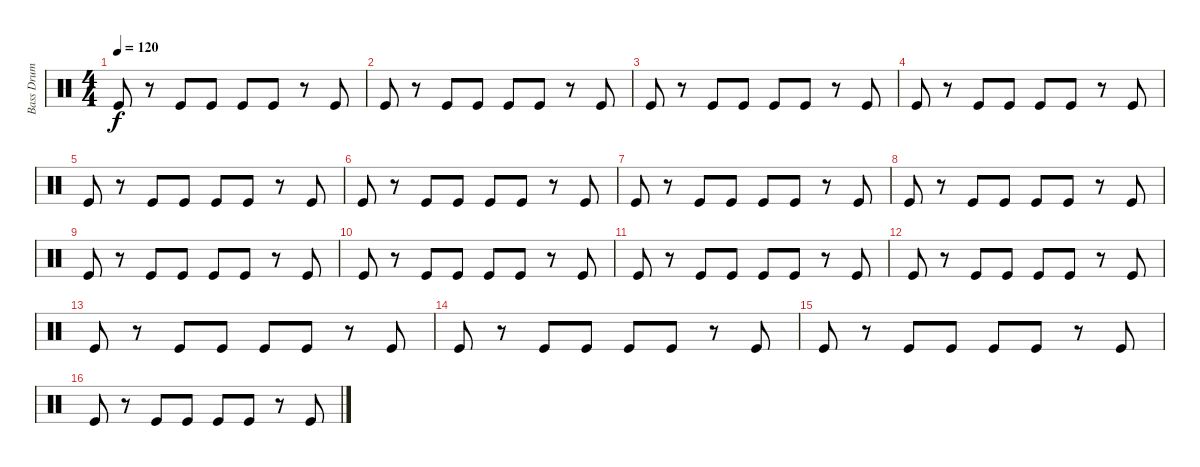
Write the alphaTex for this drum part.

\track ("Bass Drum           " "Bass Drum ") {instrument percussion}
\staff {score}
\articulation defaults
\ts (4 4)
\tempo 120
\clef neutral
\ks c "Kick (hit)".8{dy f}
r.8 "Kick (hit)".8 "Kick (hit)".8 "Kick (hit)".8 "Kick (hit)".8 r.8 "Kick (hit)".8 |
"Kick (hit)".8 r.8 "Kick (hit)".8 "Kick (hit)".8 "Kick (hit)".8 "Kick (hit)".8 r.8 "Kick (hit)".8 |
"Kick (hit)".8 r.8 "Kick (hit)".8 "Kick (hit)".8 "Kick (hit)".8 "Kick (hit)".8 r.8 "Kick (hit)".8 |
"Kick (hit)".8 r.8 "Kick (hit)".8 "Kick (hit)".8 "Kick (hit)".8 "Kick (hit)".8 r.8 "Kick (hit)".8 |
"Kick (hit)".8 r.8 "Kick (hit)".8 "Kick (hit)".8 "Kick (hit)".8 "Kick (hit)".8 r.8 "Kick (hit)".8 |
"Kick (hit)".8 r.8 "Kick (hit)".8 "Kick (hit)".8 "Kick (hit)".8 "Kick (hit)".8 r.8 "Kick (hit)".8 |
"Kick (hit)".8 r.8 "Kick (hit)".8 "Kick (hit)".8 "Kick (hit)".8 "Kick (hit)".8 r.8 "Kick (hit)".8 |
"Kick (hit)".8 r.8 "Kick (hit)".8 "Kick (hit)".8 "Kick (hit)".8 "Kick (hit)".8 r.8 "Kick (hit)".8 |
"Kick (hit)".8 r.8 "Kick (hit)".8 "Kick (hit)".8 "Kick (hit)".8 "Kick (hit)".8 r.8 "Kick (hit)".8 |
"Kick (hit)".8 r.8 "Kick (hit)".8 "Kick (hit)".8 "Kick (hit)".8 "Kick (hit)".8 r.8 "Kick (hit)".8 |
"Kick (hit)".8 r.8 "Kick (hit)".8 "Kick (hit)".8 "Kick (hit)".8 "Kick (hit)".8 r.8 "Kick (hit)".8 |
"Kick (hit)".8 r.8 "Kick (hit)".8 "Kick (hit)".8 "Kick (hit)".8 "Kick (hit)".8 r.8 "Kick (hit)".8 |
"Kick (hit)".8 r.8 "Kick (hit)".8 "Kick (hit)".8 "Kick (hit)".8 "Kick (hit)".8 r.8 "Kick (hit)".8 |
"Kick (hit)".8 r.8 "Kick (hit)".8 "Kick (hit)".8 "Kick (hit)".8 "Kick (hit)".8 r.8 "Kick (hit)".8 |
"Kick (hit)".8 r.8 "Kick (hit)".8 "Kick (hit)".8 "Kick (hit)".8 "Kick (hit)".8 r.8 "Kick (hit)".8 |
"Kick (hit)".8 r.8 "Kick (hit)".8 "Kick (hit)".8 "Kick (hit)".8 "Kick (hit)".8 r.8 "Kick (hit)".8
